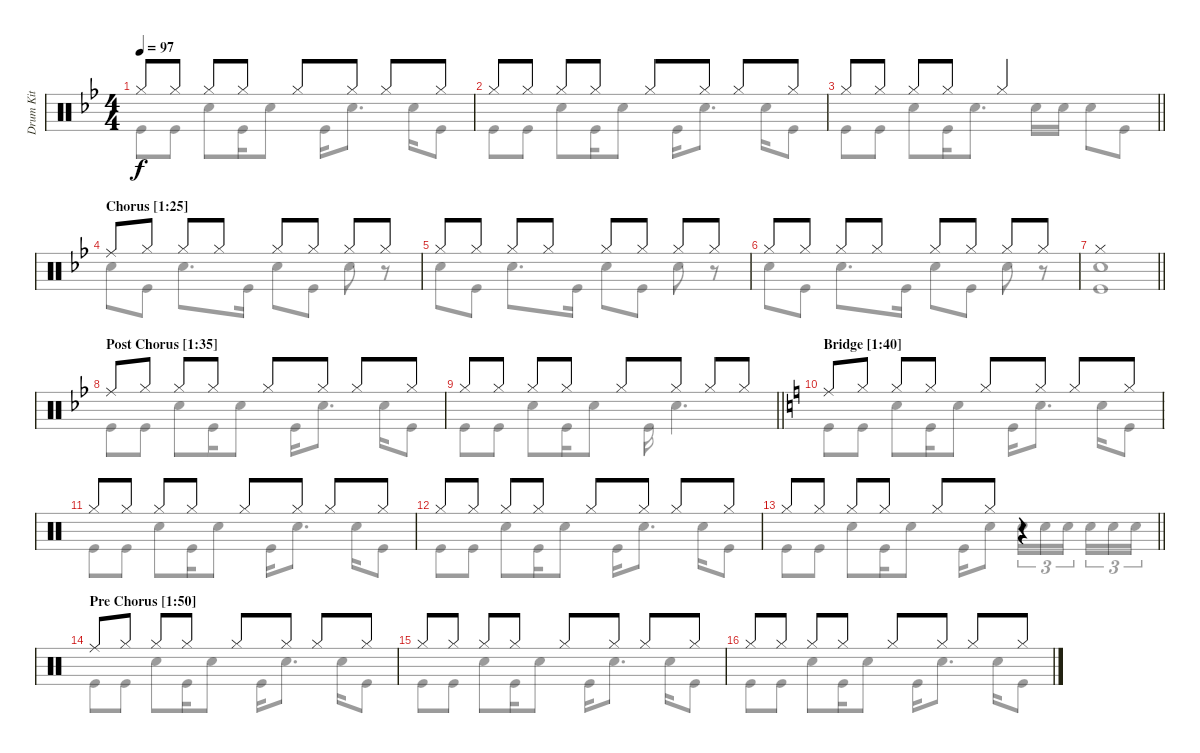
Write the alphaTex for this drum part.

\track ("Drum Kit" "Drum Kit") {instrument percussion}
\staff {score}
\articulation defaults
\voice
\ts (4 4)
\tempo 97
\clef neutral
\ks gminor "Hi-Hat (closed)".8{dy f} "Hi-Hat (closed)".8 "Hi-Hat (closed)".8 "Hi-Hat (closed)".8 "Hi-Hat (closed)".8 "Hi-Hat (closed)".8 "Hi-Hat (closed)".8 "Hi-Hat (closed)".8
|
"Hi-Hat (closed)".8 "Hi-Hat (closed)".8 "Hi-Hat (closed)".8 "Hi-Hat (closed)".8 "Hi-Hat (closed)".8 "Hi-Hat (closed)".8 "Hi-Hat (closed)".8 "Hi-Hat (closed)".8 |
\barLineRight lightlight "Hi-Hat (closed)".8 "Hi-Hat (closed)".8 "Hi-Hat (closed)".8 "Hi-Hat (closed)".8 "Hi-Hat (closed)".2
|
\section ("" "Chorus [1:25]")
"Ride (middle)".8 "Hi-Hat (closed)".8 "Hi-Hat (closed)".8 "Hi-Hat (closed)".8 "Hi-Hat (closed)".8 "Hi-Hat (closed)".8 "Hi-Hat (closed)".8 "Hi-Hat (closed)".8 |
"Hi-Hat (closed)".8 "Hi-Hat (closed)".8 "Hi-Hat (closed)".8 "Hi-Hat (closed)".8 "Hi-Hat (closed)".8 "Hi-Hat (closed)".8 "Hi-Hat (closed)".8 "Hi-Hat (closed)".8 |
"Hi-Hat (closed)".8 "Hi-Hat (closed)".8 "Hi-Hat (closed)".8 "Hi-Hat (closed)".8 "Hi-Hat (closed)".8 "Hi-Hat (closed)".8 "Hi-Hat (closed)".8 "Hi-Hat (closed)".8 |
\barLineRight lightlight "Hi-Hat (closed)".1
|
\section ("" "Post Chorus [1:35]")
"Ride (middle)".8 "Hi-Hat (closed)".8 "Hi-Hat (closed)".8 "Hi-Hat (closed)".8 "Hi-Hat (closed)".8 "Hi-Hat (closed)".8 "Hi-Hat (closed)".8 "Hi-Hat (closed)".8 |
\barLineRight lightlight "Hi-Hat (closed)".8 "Hi-Hat (closed)".8 "Hi-Hat (closed)".8 "Hi-Hat (closed)".8 "Hi-Hat (closed)".8 "Hi-Hat (closed)".8 "Hi-Hat (closed)".8 "Hi-Hat (closed)".8
|
\section ("" "Bridge [1:40]")
\ks aminor "Ride (middle)".8 "Hi-Hat (closed)".8 "Hi-Hat (closed)".8 "Hi-Hat (closed)".8 "Hi-Hat (closed)".8 "Hi-Hat (closed)".8 "Hi-Hat (closed)".8 "Hi-Hat (closed)".8
|
"Hi-Hat (closed)".8 "Hi-Hat (closed)".8 "Hi-Hat (closed)".8 "Hi-Hat (closed)".8 "Hi-Hat (closed)".8 "Hi-Hat (closed)".8 "Hi-Hat (closed)".8 "Hi-Hat (closed)".8 |
"Hi-Hat (closed)".8 "Hi-Hat (closed)".8 "Hi-Hat (closed)".8 "Hi-Hat (closed)".8 "Hi-Hat (closed)".8 "Hi-Hat (closed)".8 "Hi-Hat (closed)".8 "Hi-Hat (closed)".8 |
\barLineRight lightlight "Hi-Hat (closed)".8 "Hi-Hat (closed)".8 "Hi-Hat (closed)".8 "Hi-Hat (closed)".8 "Hi-Hat (closed)".8 "Hi-Hat (closed)".8
r.4 |
\section ("" "Pre Chorus [1:50]")
"Ride (middle)".8 "Hi-Hat (closed)".8 "Hi-Hat (closed)".8 "Hi-Hat (closed)".8 "Hi-Hat (closed)".8 "Hi-Hat (closed)".8 "Hi-Hat (closed)".8 "Hi-Hat (closed)".8 |
"Hi-Hat (closed)".8 "Hi-Hat (closed)".8 "Hi-Hat (closed)".8 "Hi-Hat (closed)".8 "Hi-Hat (closed)".8 "Hi-Hat (closed)".8 "Hi-Hat (closed)".8 "Hi-Hat (closed)".8 |
"Hi-Hat (closed)".8 "Hi-Hat (closed)".8 "Hi-Hat (closed)".8 "Hi-Hat (closed)".8 "Hi-Hat (closed)".8 "Hi-Hat (closed)".8 "Hi-Hat (closed)".8 "Hi-Hat (closed)".8
\voice
\clef neutral
\ottava regular
\simile none
\ks gminor "Kick (hit)".8{dy f} "Kick (hit)".8 "Snare (hit) 2".8 "Kick (hit)".16 "Snare (hit) 2".8 "Kick (hit)".16 "Snare (hit) 2".8{d} "Snare (hit) 2".16 "Kick (hit)".8
|
"Kick (hit)".8 "Kick (hit)".8 "Snare (hit) 2".8 "Kick (hit)".16 "Snare (hit) 2".8 "Kick (hit)".16 "Snare (hit) 2".8{d} "Snare (hit) 2".16 "Kick (hit)".8 |
\barLineRight lightlight "Kick (hit)".8 "Kick (hit)".8 "Snare (hit) 2".8 "Kick (hit)".16 "Snare (hit) 2".8{d} "Snare (hit) 2".16 "Snare (hit) 2".16 "Snare (hit) 2".8 "Kick (hit)".8
|
"Snare (hit) 2".8 "Kick (hit)".8 "Snare (hit) 2".8{d} "Kick (hit)".16 "Snare (hit) 2".8 "Kick (hit)".8 "Snare (hit) 2".8 r.8 |
"Snare (hit) 2".8 "Kick (hit)".8 "Snare (hit) 2".8{d} "Kick (hit)".16 "Snare (hit) 2".8 "Kick (hit)".8 "Snare (hit) 2".8 r.8 |
"Snare (hit) 2".8 "Kick (hit)".8 "Snare (hit) 2".8{d} "Kick (hit)".16 "Snare (hit) 2".8 "Kick (hit)".8 "Snare (hit) 2".8 r.8 |
\barLineRight lightlight
("Kick (hit)" "Snare (hit) 2").1 |
"Kick (hit)".8 "Kick (hit)".8 "Snare (hit) 2".8 "Kick (hit)".16 "Snare (hit) 2".8 "Kick (hit)".16 "Snare (hit) 2".8{d} "Snare (hit) 2".16 "Kick (hit)".8 |
\barLineRight lightlight "Kick (hit)".8 "Kick (hit)".8 "Snare (hit) 2".8 "Kick (hit)".16 "Snare (hit) 2".8 "Kick (hit)".16 "Snare (hit) 2".4{d}
|
\ks aminor "Kick (hit)".8 "Kick (hit)".8 "Snare (hit) 2".8 "Kick (hit)".16 "Snare (hit) 2".8 "Kick (hit)".16 "Snare (hit) 2".8{d} "Snare (hit) 2".16 "Kick (hit)".8
|
"Kick (hit)".8 "Kick (hit)".8 "Snare (hit) 2".8 "Kick (hit)".16 "Snare (hit) 2".8 "Kick (hit)".16 "Snare (hit) 2".8{d} "Snare (hit) 2".16 "Kick (hit)".8 |
"Kick (hit)".8 "Kick (hit)".8 "Snare (hit) 2".8 "Kick (hit)".16 "Snare (hit) 2".8 "Kick (hit)".16 "Snare (hit) 2".8{d} "Snare (hit) 2".16 "Kick (hit)".8 |
\barLineRight lightlight "Kick (hit)".8 "Kick (hit)".8 "Snare (hit) 2".8 "Kick (hit)".16 "Snare (hit) 2".8 "Kick (hit)".16 "Snare (hit) 2".8 "Snare (hit) 2".16{tu (3 2)} "Snare (hit) 2".16{tu (3 2)} "Snare (hit) 2".16{tu (3 2) beam splitsecondary} "Snare (hit) 2".16{tu (3 2)} "Snare (hit) 2".16{tu (3 2)} "Snare (hit) 2".16{tu (3 2)}
|
"Kick (hit)".8 "Kick (hit)".8 "Snare (hit) 2".8 "Kick (hit)".16 "Snare (hit) 2".8 "Kick (hit)".16 "Snare (hit) 2".8{d} "Snare (hit) 2".16 "Kick (hit)".8 |
"Kick (hit)".8 "Kick (hit)".8 "Snare (hit) 2".8 "Kick (hit)".16 "Snare (hit) 2".8 "Kick (hit)".16 "Snare (hit) 2".8{d} "Snare (hit) 2".16 "Kick (hit)".8 |
"Kick (hit)".8 "Kick (hit)".8 "Snare (hit) 2".8 "Kick (hit)".16 "Snare (hit) 2".8 "Kick (hit)".16 "Snare (hit) 2".8{d} "Snare (hit) 2".16 "Kick (hit)".8
